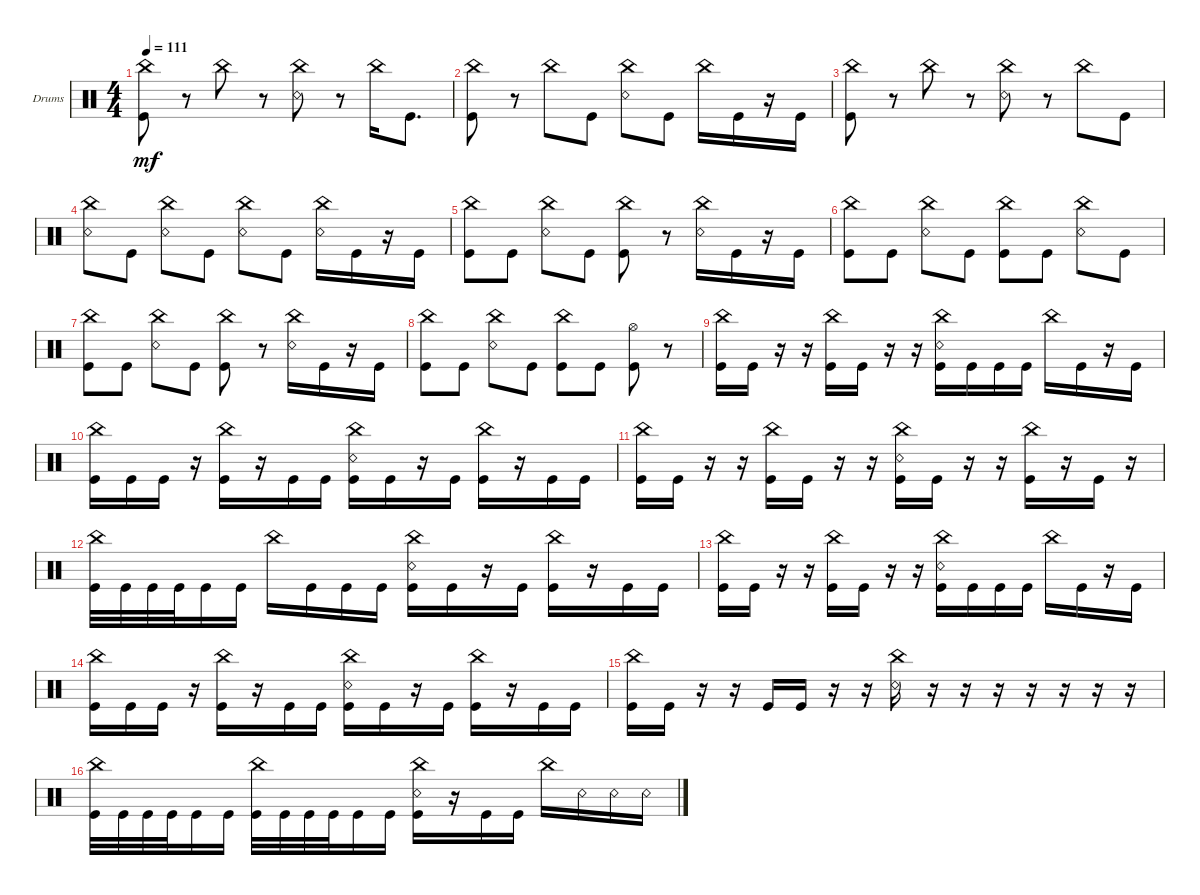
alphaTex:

\defaultSystemsLayout 4
\bracketExtendMode groupsimilarinstruments
\firstSystemTrackNameOrientation horizontal
\otherSystemsTrackNameOrientation horizontal
\track ("Drumkit" "Drums") {instrument percussion}
\staff {score}
\articulation defaults
\ts (4 4)
\tempo 111
\clef neutral
\ks c
("China (hit)" "Kick (hit)").8{dy mf} r.8 "China (hit)".8 r.8 ("China (hit)" "Snare (rim shot)").8 r.8 "China (hit)".16 "Kick (hit)".8{d} |
("China (hit)" "Kick (hit)").8 r.8 "China (hit)".8 "Kick (hit)".8 ("China (hit)" "Snare (rim shot)").8 "Kick (hit)".8 "China (hit)".16 "Kick (hit)".16 r.16 "Kick (hit)".16 |
("China (hit)" "Kick (hit)").8 r.8 "China (hit)".8 r.8 ("China (hit)" "Snare (rim shot)").8 r.8 "China (hit)".8 "Kick (hit)".8 |
("China (hit)" "Snare (rim shot)").8 "Kick (hit)".8 ("China (hit)" "Snare (rim shot)").8 "Kick (hit)".8 ("China (hit)" "Snare (rim shot)").8 "Kick (hit)".8 ("China (hit)" "Snare (rim shot)").16 "Kick (hit)".16 r.16 "Kick (hit)".16 |
("China (hit)" "Kick (hit)").8 "Kick (hit)".8 ("Snare (rim shot)" "China (hit)").8 "Kick (hit)".8 ("Kick (hit)" "China (hit)").8 r.8 ("Snare (rim shot)" "China (hit)").16 "Kick (hit)".16 r.16 "Kick (hit)".16 |
("China (hit)" "Kick (hit)").8 "Kick (hit)".8 ("Snare (rim shot)" "China (hit)").8 "Kick (hit)".8 ("Kick (hit)" "China (hit)").8 "Kick (hit)".8 ("Snare (rim shot)" "China (hit)").8 "Kick (hit)".8 |
("China (hit)" "Kick (hit)").8 "Kick (hit)".8 ("Snare (rim shot)" "China (hit)").8 "Kick (hit)".8 ("Kick (hit)" "China (hit)").8 r.8 ("Snare (rim shot)" "China (hit)").16 "Kick (hit)".16 r.16 "Kick (hit)".16 |
("China (hit)" "Kick (hit)").8 "Kick (hit)".8 ("Snare (rim shot)" "China (hit)").8 "Kick (hit)".8 ("Kick (hit)" "China (hit)").8 "Kick (hit)".8 ("Kick (hit)" "Hi-Hat (open)").8 r.8 |
("Kick (hit)" "China (hit)").16 "Kick (hit)".16 r.16 r.16 ("Kick (hit)" "China (hit)").16 "Kick (hit)".16 r.16 r.16 ("Kick (hit)" "China (hit)" "Snare (rim shot)").16 "Kick (hit)".16 "Kick (hit)".16 "Kick (hit)".16 "China (hit)".16 "Kick (hit)".16 r.16 "Kick (hit)".16 |
("China (hit)" "Kick (hit)").16 "Kick (hit)".16 "Kick (hit)".16 r.16 ("China (hit)" "Kick (hit)").16 r.16 "Kick (hit)".16 "Kick (hit)".16 ("China (hit)" "Kick (hit)" "Snare (rim shot)").16 "Kick (hit)".16 r.16 "Kick (hit)".16 ("China (hit)" "Kick (hit)").16 r.16 "Kick (hit)".16 "Kick (hit)".16 |
("Kick (hit)" "China (hit)").16 "Kick (hit)".16 r.16 r.16 ("Kick (hit)" "China (hit)").16 "Kick (hit)".16 r.16 r.16 ("Kick (hit)" "China (hit)" "Snare (rim shot)").16 "Kick (hit)".16 r.16 r.16 ("China (hit)" "Kick (hit)").16 r.16 "Kick (hit)".16 r.16 |
("Kick (hit)" "China (hit)").32 "Kick (hit)".32 "Kick (hit)".32 "Kick (hit)".32 "Kick (hit)".16 "Kick (hit)".16 "China (hit)".16 "Kick (hit)".16 "Kick (hit)".16 "Kick (hit)".16 ("Kick (hit)" "China (hit)" "Snare (rim shot)").16 "Kick (hit)".16 r.16 "Kick (hit)".16 ("Kick (hit)" "China (hit)").16 r.16 "Kick (hit)".16 "Kick (hit)".16 |
("Kick (hit)" "China (hit)").16 "Kick (hit)".16 r.16 r.16 ("Kick (hit)" "China (hit)").16 "Kick (hit)".16 r.16 r.16 ("Kick (hit)" "China (hit)" "Snare (rim shot)").16 "Kick (hit)".16 "Kick (hit)".16 "Kick (hit)".16 "China (hit)".16 "Kick (hit)".16 r.16 "Kick (hit)".16 |
("China (hit)" "Kick (hit)").16 "Kick (hit)".16 "Kick (hit)".16 r.16 ("China (hit)" "Kick (hit)").16 r.16 "Kick (hit)".16 "Kick (hit)".16 ("China (hit)" "Kick (hit)" "Snare (rim shot)").16 "Kick (hit)".16 r.16 "Kick (hit)".16 ("China (hit)" "Kick (hit)").16 r.16 "Kick (hit)".16 "Kick (hit)".16 |
("Kick (hit)" "China (hit)").16 "Kick (hit)".16 r.16 r.16 "Kick (hit)".16 "Kick (hit)".16 r.16 r.16 ("China (hit)" "Snare (rim shot)").16 r.16 r.16 r.16 r.16 r.16 r.16 r.16 |
("Kick (hit)" "China (hit)").32 "Kick (hit)".32 "Kick (hit)".32 "Kick (hit)".32 "Kick (hit)".16 "Kick (hit)".16 ("Kick (hit)" "China (hit)").32 "Kick (hit)".32 "Kick (hit)".32 "Kick (hit)".32 "Kick (hit)".16 "Kick (hit)".16 ("Kick (hit)" "China (hit)" "Snare (rim shot)").16 r.16 "Kick (hit)".16 "Kick (hit)".16 "China (hit)".16 "Snare (rim shot)".16 "Snare (rim shot)".16 "Snare (rim shot)".16
